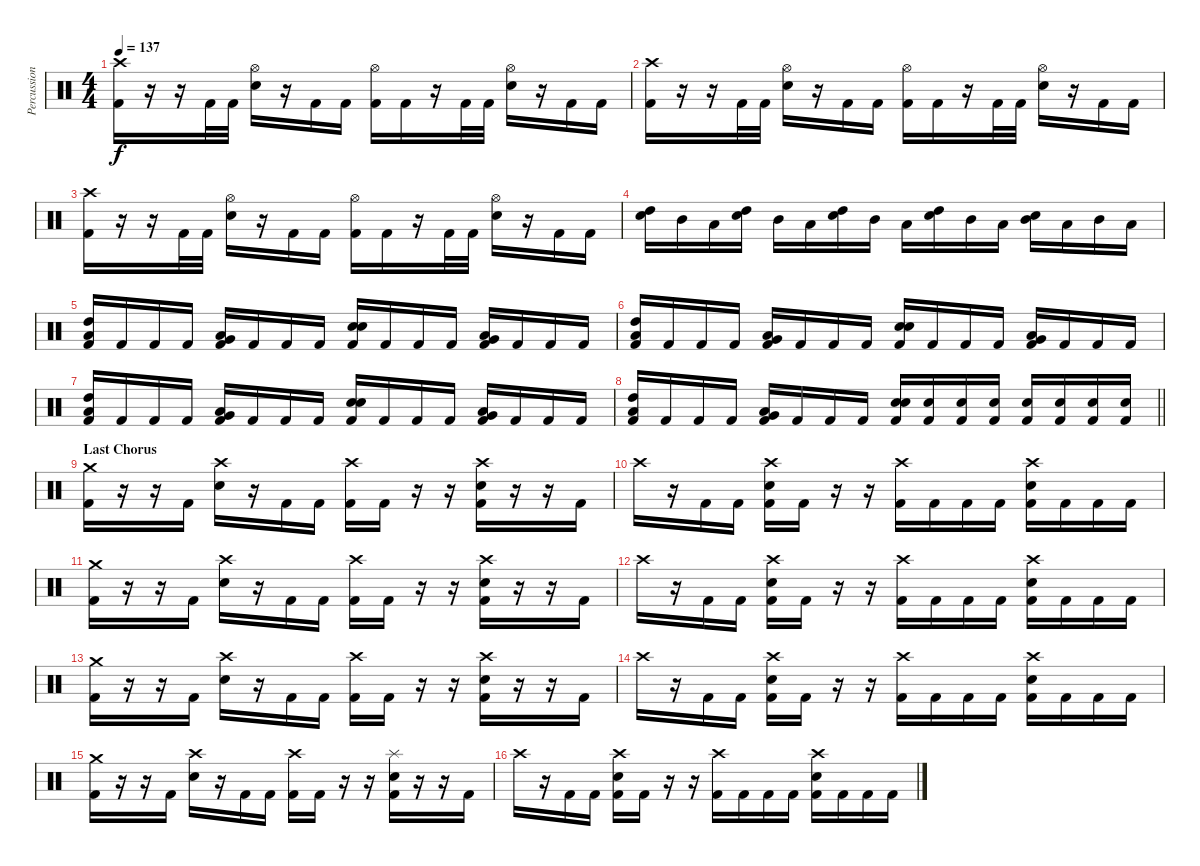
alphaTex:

\track ("Percussion" "Percussion") {instrument percussion}
\staff {score}
\articulation defaults
\ts (4 4)
\tempo 137
\clef neutral
\ks c
("Crash high (hit)" "Kick (hit) 2").16{dy f} r.16 r.16 "Kick (hit) 2".32 "Kick (hit) 2".32 ("Hi-Hat (open)" "Snare (hit) 2").16 r.16 "Kick (hit) 2".16 "Kick (hit) 2".16 ("Hi-Hat (open)" "Kick (hit) 2").16 "Kick (hit) 2".16 r.16 "Kick (hit) 2".32 "Kick (hit) 2".32 ("Hi-Hat (open)" "Snare (hit) 2").16 r.16 "Kick (hit) 2".16 "Kick (hit) 2".16 |
("Crash high (hit)" "Kick (hit) 2").16 r.16 r.16 "Kick (hit) 2".32 "Kick (hit) 2".32 ("Hi-Hat (open)" "Snare (hit) 2").16 r.16 "Kick (hit) 2".16 "Kick (hit) 2".16 ("Hi-Hat (open)" "Kick (hit) 2").16 "Kick (hit) 2".16 r.16 "Kick (hit) 2".32 "Kick (hit) 2".32 ("Hi-Hat (open)" "Snare (hit) 2").16 r.16 "Kick (hit) 2".16 "Kick (hit) 2".16 |
("Crash high (hit)" "Kick (hit) 2").16 r.16 r.16 "Kick (hit) 2".32 "Kick (hit) 2".32 ("Hi-Hat (open)" "Snare (hit) 2").16 r.16 "Kick (hit) 2".16 "Kick (hit) 2".16 ("Hi-Hat (open)" "Kick (hit) 2").16 "Kick (hit) 2".16 r.16 "Kick (hit) 2".32 "Kick (hit) 2".32 ("Hi-Hat (open)" "Snare (hit) 2").16 r.16 "Kick (hit) 2".16 "Kick (hit) 2".16 |
("Snare (hit) 2" "High Tom (hit)").16 "Mid Tom (hit)".16 "Low Tom (hit)".16 ("Snare (hit) 2" "High Tom (hit)").16 "Mid Tom (hit)".16 "Low Tom (hit)".16 ("Snare (hit) 2" "High Tom (hit)").16 "Mid Tom (hit)".16 "Low Tom (hit)".16 ("Snare (hit) 2" "High Tom (hit)").16 "Mid Tom (hit)".16 "Low Tom (hit)".16 ("Snare (hit) 2" "Mid Tom (hit)").16 "Low Tom (hit)".16 "Mid Tom (hit)".16 "Low Tom (hit)".16 |
("High Tom (hit)" "Low Tom (hit)" "Kick (hit) 2").16 "Kick (hit) 2".16 "Kick (hit) 2".16 "Kick (hit) 2".16 ("Low Tom (hit)" "Very Low Tom (hit)" "Kick (hit) 2").16 "Kick (hit) 2".16 "Kick (hit) 2".16 "Kick (hit) 2".16 ("Snare (hit) 2" "Electric Snare (hit)" "Kick (hit) 2").16 "Kick (hit) 2".16 "Kick (hit) 2".16 "Kick (hit) 2".16 ("Low Floor Tom (hit)" "Very Low Tom (hit)" "Kick (hit) 2").16 "Kick (hit) 2".16 "Kick (hit) 2".16 "Kick (hit) 2".16 |
("High Tom (hit)" "Low Tom (hit)" "Kick (hit) 2").16 "Kick (hit) 2".16 "Kick (hit) 2".16 "Kick (hit) 2".16 ("Low Tom (hit)" "Very Low Tom (hit)" "Kick (hit) 2").16 "Kick (hit) 2".16 "Kick (hit) 2".16 "Kick (hit) 2".16 ("Snare (hit) 2" "Electric Snare (hit)" "Kick (hit) 2").16 "Kick (hit) 2".16 "Kick (hit) 2".16 "Kick (hit) 2".16 ("Low Floor Tom (hit)" "Very Low Tom (hit)" "Kick (hit) 2").16 "Kick (hit) 2".16 "Kick (hit) 2".16 "Kick (hit) 2".16 |
("High Tom (hit)" "Low Tom (hit)" "Kick (hit) 2").16 "Kick (hit) 2".16 "Kick (hit) 2".16 "Kick (hit) 2".16 ("Low Tom (hit)" "Very Low Tom (hit)" "Kick (hit) 2").16 "Kick (hit) 2".16 "Kick (hit) 2".16 "Kick (hit) 2".16 ("Snare (hit) 2" "Electric Snare (hit)" "Kick (hit) 2").16 "Kick (hit) 2".16 "Kick (hit) 2".16 "Kick (hit) 2".16 ("Low Floor Tom (hit)" "Very Low Tom (hit)" "Kick (hit) 2").16 "Kick (hit) 2".16 "Kick (hit) 2".16 "Kick (hit) 2".16 |
\barLineRight lightlight
("High Tom (hit)" "Low Tom (hit)" "Kick (hit) 2").16 "Kick (hit) 2".16 "Kick (hit) 2".16 "Kick (hit) 2".16 ("Low Tom (hit)" "Very Low Tom (hit)" "Kick (hit) 2").16 "Kick (hit) 2".16 "Kick (hit) 2".16 "Kick (hit) 2".16 ("Snare (hit) 2" "Electric Snare (hit)" "Kick (hit) 2").16 ("Snare (hit) 2" "Kick (hit) 2").16 ("Snare (hit) 2" "Kick (hit) 2").16 ("Snare (hit) 2" "Kick (hit) 2").16 ("Snare (hit) 2" "Kick (hit) 2").16 ("Snare (hit) 2" "Kick (hit) 2").16 ("Snare (hit) 2" "Kick (hit) 2").16 ("Snare (hit) 2" "Kick (hit) 2").16 |
\section ("" "Last Chorus")
("Crash medium (hit)" "Kick (hit) 2").16 r.16 r.16 "Kick (hit) 2".16 ("Crash high (hit)" "Snare (hit) 2").16 r.16 "Kick (hit) 2".16 "Kick (hit) 2".16 ("Crash high (hit)" "Kick (hit) 2").16 "Kick (hit) 2".16 r.16 r.16 ("Crash high (hit)" "Snare (hit) 2" "Kick (hit) 2").16 r.16 r.16 "Kick (hit) 2".16 |
"Crash high (hit)".16 r.16 "Kick (hit) 2".16 "Kick (hit) 2".16 ("Crash high (hit)" "Snare (hit) 2" "Kick (hit) 2").16 "Kick (hit) 2".16 r.16 r.16 ("Crash high (hit)" "Kick (hit) 2").16 "Kick (hit) 2".16 "Kick (hit) 2".16 "Kick (hit) 2".16 ("Crash high (hit)" "Snare (hit) 2" "Kick (hit) 2").16 "Kick (hit) 2".16 "Kick (hit) 2".16 "Kick (hit) 2".16 |
("Crash medium (hit)" "Kick (hit) 2").16 r.16 r.16 "Kick (hit) 2".16 ("Crash high (hit)" "Snare (hit) 2").16 r.16 "Kick (hit) 2".16 "Kick (hit) 2".16 ("Crash high (hit)" "Kick (hit) 2").16 "Kick (hit) 2".16 r.16 r.16 ("Crash high (hit)" "Snare (hit) 2" "Kick (hit) 2").16 r.16 r.16 "Kick (hit) 2".16 |
"Crash high (hit)".16 r.16 "Kick (hit) 2".16 "Kick (hit) 2".16 ("Crash high (hit)" "Snare (hit) 2" "Kick (hit) 2").16 "Kick (hit) 2".16 r.16 r.16 ("Crash high (hit)" "Kick (hit) 2").16 "Kick (hit) 2".16 "Kick (hit) 2".16 "Kick (hit) 2".16 ("Crash high (hit)" "Snare (hit) 2" "Kick (hit) 2").16 "Kick (hit) 2".16 "Kick (hit) 2".16 "Kick (hit) 2".16 |
("Crash medium (hit)" "Kick (hit) 2").16 r.16 r.16 "Kick (hit) 2".16 ("Crash high (hit)" "Snare (hit) 2").16 r.16 "Kick (hit) 2".16 "Kick (hit) 2".16 ("Crash high (hit)" "Kick (hit) 2").16 "Kick (hit) 2".16 r.16 r.16 ("Crash high (hit)" "Snare (hit) 2" "Kick (hit) 2").16 r.16 r.16 "Kick (hit) 2".16 |
"Crash high (hit)".16 r.16 "Kick (hit) 2".16 "Kick (hit) 2".16 ("Crash high (hit)" "Snare (hit) 2" "Kick (hit) 2").16 "Kick (hit) 2".16 r.16 r.16 ("Crash high (hit)" "Kick (hit) 2").16 "Kick (hit) 2".16 "Kick (hit) 2".16 "Kick (hit) 2".16 ("Crash high (hit)" "Snare (hit) 2" "Kick (hit) 2").16 "Kick (hit) 2".16 "Kick (hit) 2".16 "Kick (hit) 2".16 |
("Crash medium (hit)" "Kick (hit) 2").16 r.16 r.16 "Kick (hit) 2".16 ("Crash high (hit)" "Snare (hit) 2").16 r.16 "Kick (hit) 2".16 "Kick (hit) 2".16 ("Crash high (hit)" "Kick (hit) 2").16 "Kick (hit) 2".16 r.16 r.16 ("Splash (hit)" "Snare (hit) 2" "Kick (hit) 2").16 r.16 r.16 "Kick (hit) 2".16 |
"Crash high (hit)".16 r.16 "Kick (hit) 2".16 "Kick (hit) 2".16 ("Crash high (hit)" "Snare (hit) 2" "Kick (hit) 2").16 "Kick (hit) 2".16 r.16 r.16 ("Crash high (hit)" "Kick (hit) 2").16 "Kick (hit) 2".16 "Kick (hit) 2".16 "Kick (hit) 2".16 ("Crash high (hit)" "Snare (hit) 2" "Kick (hit) 2").16 "Kick (hit) 2".16 "Kick (hit) 2".16 "Kick (hit) 2".16
